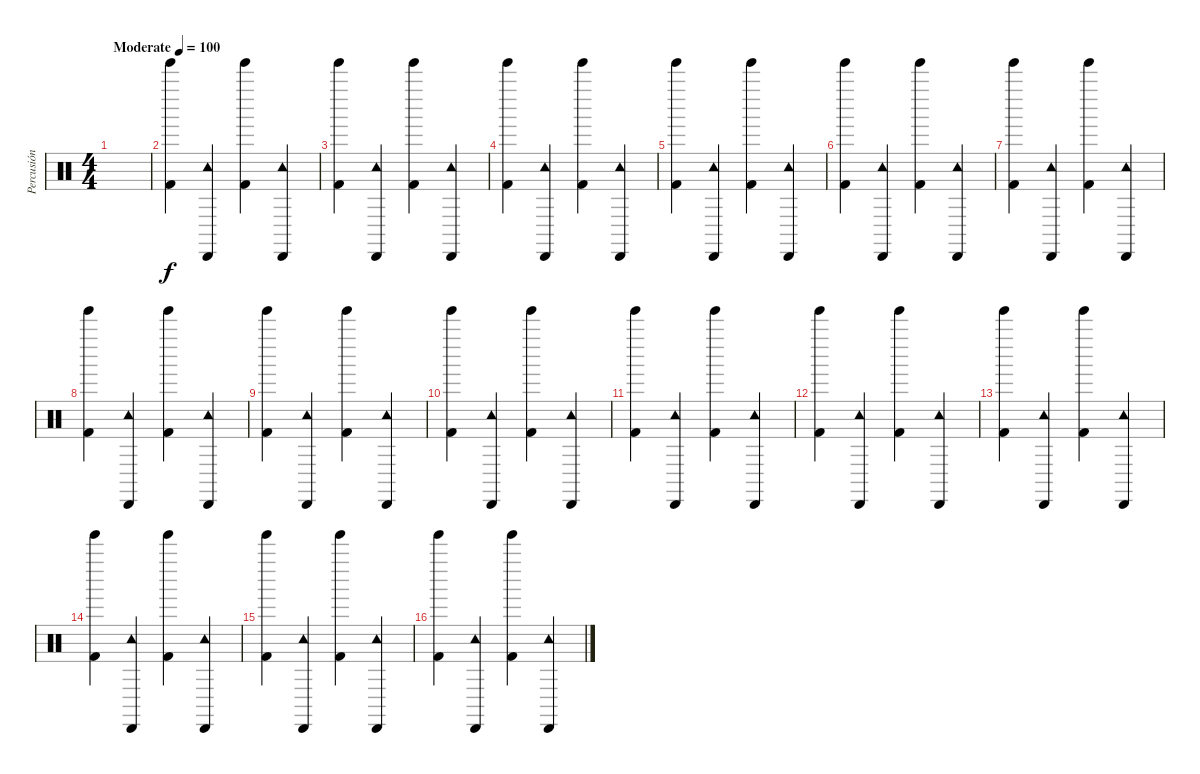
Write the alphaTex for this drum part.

\track ("Percusión" "Percusión") {instrument percussion}
\staff {score}
\articulation defaults
\ts (4 4)
\tempo (100 "Moderate")
\clef neutral
\ks c
|
("Tinkle Bell (hit)" "Kick (hit) 2").4 ("Cabasa (hit)" "Tambourine (hit)").4 ("Tinkle Bell (hit)" "Kick (hit) 2").4 ("Cabasa (hit)" "Tambourine (hit)").4 |
("Tinkle Bell (hit)" "Kick (hit) 2").4 ("Cabasa (hit)" "Tambourine (hit)").4 ("Tinkle Bell (hit)" "Kick (hit) 2").4 ("Cabasa (hit)" "Tambourine (hit)").4 |
("Tinkle Bell (hit)" "Kick (hit) 2").4 ("Cabasa (hit)" "Tambourine (hit)").4 ("Tinkle Bell (hit)" "Kick (hit) 2").4 ("Cabasa (hit)" "Tambourine (hit)").4 |
("Tinkle Bell (hit)" "Kick (hit) 2").4 ("Cabasa (hit)" "Tambourine (hit)").4 ("Tinkle Bell (hit)" "Kick (hit) 2").4 ("Cabasa (hit)" "Tambourine (hit)").4 |
("Tinkle Bell (hit)" "Kick (hit) 2").4 ("Cabasa (hit)" "Tambourine (hit)").4 ("Tinkle Bell (hit)" "Kick (hit) 2").4 ("Cabasa (hit)" "Tambourine (hit)").4 |
("Tinkle Bell (hit)" "Kick (hit) 2").4 ("Cabasa (hit)" "Tambourine (hit)").4 ("Tinkle Bell (hit)" "Kick (hit) 2").4 ("Cabasa (hit)" "Tambourine (hit)").4 |
("Tinkle Bell (hit)" "Kick (hit) 2").4 ("Cabasa (hit)" "Tambourine (hit)").4 ("Tinkle Bell (hit)" "Kick (hit) 2").4 ("Cabasa (hit)" "Tambourine (hit)").4 |
("Tinkle Bell (hit)" "Kick (hit) 2").4 ("Cabasa (hit)" "Tambourine (hit)").4 ("Tinkle Bell (hit)" "Kick (hit) 2").4 ("Cabasa (hit)" "Tambourine (hit)").4 |
("Tinkle Bell (hit)" "Kick (hit) 2").4 ("Cabasa (hit)" "Tambourine (hit)").4 ("Tinkle Bell (hit)" "Kick (hit) 2").4 ("Cabasa (hit)" "Tambourine (hit)").4 |
("Tinkle Bell (hit)" "Kick (hit) 2").4 ("Cabasa (hit)" "Tambourine (hit)").4 ("Tinkle Bell (hit)" "Kick (hit) 2").4 ("Cabasa (hit)" "Tambourine (hit)").4 |
("Tinkle Bell (hit)" "Kick (hit) 2").4 ("Cabasa (hit)" "Tambourine (hit)").4 ("Tinkle Bell (hit)" "Kick (hit) 2").4 ("Cabasa (hit)" "Tambourine (hit)").4 |
("Tinkle Bell (hit)" "Kick (hit) 2").4 ("Cabasa (hit)" "Tambourine (hit)").4 ("Tinkle Bell (hit)" "Kick (hit) 2").4 ("Cabasa (hit)" "Tambourine (hit)").4 |
("Tinkle Bell (hit)" "Kick (hit) 2").4 ("Cabasa (hit)" "Tambourine (hit)").4 ("Tinkle Bell (hit)" "Kick (hit) 2").4 ("Cabasa (hit)" "Tambourine (hit)").4 |
("Tinkle Bell (hit)" "Kick (hit) 2").4 ("Cabasa (hit)" "Tambourine (hit)").4 ("Tinkle Bell (hit)" "Kick (hit) 2").4 ("Cabasa (hit)" "Tambourine (hit)").4 |
("Tinkle Bell (hit)" "Kick (hit) 2").4 ("Cabasa (hit)" "Tambourine (hit)").4 ("Tinkle Bell (hit)" "Kick (hit) 2").4 ("Cabasa (hit)" "Tambourine (hit)").4
